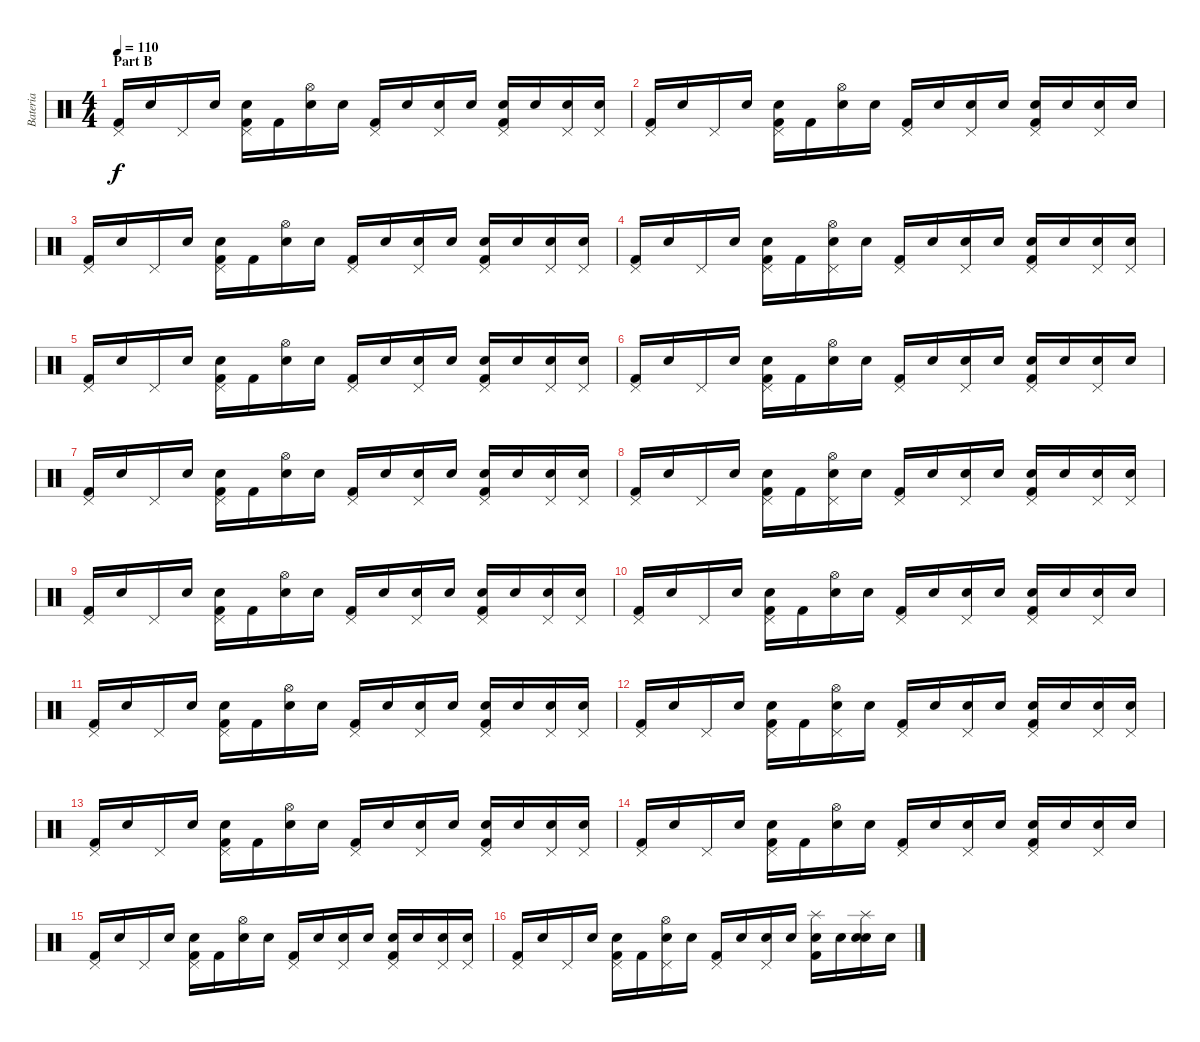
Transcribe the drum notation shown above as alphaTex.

\track ("Bateria" "Bateria") {instrument percussion}
\staff {score}
\articulation defaults
\ts (4 4)
\section ("" "Part B")
\tempo 110
\clef neutral
\ks c
("Kick (hit) 2" "Pedal Hi-Hat (hit)").16{dy f} "Snare (hit)".16 "Pedal Hi-Hat (hit)".16 "Snare (hit)".16 ("Kick (hit) 2" "Pedal Hi-Hat (hit)" "Electric Snare (hit)").16 "Kick (hit) 2".16 ("Snare (hit)" "Hi-Hat (open)").16 "Snare (hit)".16 ("Kick (hit) 2" "Pedal Hi-Hat (hit)").16 "Snare (hit)".16 ("Snare (hit)" "Pedal Hi-Hat (hit)").16 "Snare (hit)".16 ("Kick (hit) 2" "Pedal Hi-Hat (hit)" "Electric Snare (hit)").16 "Snare (hit)".16 ("Snare (hit)" "Pedal Hi-Hat (hit)").16 ("Snare (hit)" "Pedal Hi-Hat (hit)").16 |
("Kick (hit) 2" "Pedal Hi-Hat (hit)").16 "Snare (hit)".16 "Pedal Hi-Hat (hit)".16 "Snare (hit)".16 ("Kick (hit) 2" "Pedal Hi-Hat (hit)" "Electric Snare (hit)").16 "Kick (hit) 2".16 ("Snare (hit)" "Hi-Hat (open)").16 "Snare (hit)".16 ("Kick (hit) 2" "Pedal Hi-Hat (hit)").16 "Snare (hit)".16 ("Snare (hit)" "Pedal Hi-Hat (hit)").16 "Snare (hit)".16 ("Kick (hit) 2" "Pedal Hi-Hat (hit)" "Electric Snare (hit)").16 "Snare (hit)".16 ("Snare (hit)" "Pedal Hi-Hat (hit)").16 "Snare (hit)".16 |
("Kick (hit) 2" "Pedal Hi-Hat (hit)").16 "Snare (hit)".16 "Pedal Hi-Hat (hit)".16 "Snare (hit)".16 ("Kick (hit) 2" "Pedal Hi-Hat (hit)" "Electric Snare (hit)").16 "Kick (hit) 2".16 ("Snare (hit)" "Hi-Hat (open)").16 "Snare (hit)".16 ("Kick (hit) 2" "Pedal Hi-Hat (hit)").16 "Snare (hit)".16 ("Snare (hit)" "Pedal Hi-Hat (hit)").16 "Snare (hit)".16 ("Kick (hit) 2" "Pedal Hi-Hat (hit)" "Electric Snare (hit)").16 "Snare (hit)".16 ("Snare (hit)" "Pedal Hi-Hat (hit)").16 ("Snare (hit)" "Pedal Hi-Hat (hit)").16 |
("Kick (hit) 2" "Pedal Hi-Hat (hit)").16 "Snare (hit)".16 "Pedal Hi-Hat (hit)".16 "Snare (hit)".16 ("Kick (hit) 2" "Pedal Hi-Hat (hit)" "Electric Snare (hit)").16 "Kick (hit) 2".16 ("Snare (hit)" "Pedal Hi-Hat (hit)" "Hi-Hat (open)").16 "Snare (hit)".16 ("Kick (hit) 2" "Pedal Hi-Hat (hit)").16 "Snare (hit)".16 ("Snare (hit)" "Pedal Hi-Hat (hit)").16 "Snare (hit)".16 ("Kick (hit) 2" "Pedal Hi-Hat (hit)" "Electric Snare (hit)").16 "Snare (hit)".16 ("Snare (hit)" "Pedal Hi-Hat (hit)").16 ("Snare (hit)" "Pedal Hi-Hat (hit)").16 |
("Kick (hit) 2" "Pedal Hi-Hat (hit)").16 "Snare (hit)".16 "Pedal Hi-Hat (hit)".16 "Snare (hit)".16 ("Kick (hit) 2" "Pedal Hi-Hat (hit)" "Electric Snare (hit)").16 "Kick (hit) 2".16 ("Snare (hit)" "Hi-Hat (open)").16 "Snare (hit)".16 ("Kick (hit) 2" "Pedal Hi-Hat (hit)").16 "Snare (hit)".16 ("Snare (hit)" "Pedal Hi-Hat (hit)").16 "Snare (hit)".16 ("Kick (hit) 2" "Pedal Hi-Hat (hit)" "Electric Snare (hit)").16 "Snare (hit)".16 ("Snare (hit)" "Pedal Hi-Hat (hit)").16 ("Snare (hit)" "Pedal Hi-Hat (hit)").16 |
("Kick (hit) 2" "Pedal Hi-Hat (hit)").16 "Snare (hit)".16 "Pedal Hi-Hat (hit)".16 "Snare (hit)".16 ("Kick (hit) 2" "Pedal Hi-Hat (hit)" "Electric Snare (hit)").16 "Kick (hit) 2".16 ("Snare (hit)" "Hi-Hat (open)").16 "Snare (hit)".16 ("Kick (hit) 2" "Pedal Hi-Hat (hit)").16 "Snare (hit)".16 ("Snare (hit)" "Pedal Hi-Hat (hit)").16 "Snare (hit)".16 ("Kick (hit) 2" "Pedal Hi-Hat (hit)" "Electric Snare (hit)").16 "Snare (hit)".16 ("Snare (hit)" "Pedal Hi-Hat (hit)").16 "Snare (hit)".16 |
("Kick (hit) 2" "Pedal Hi-Hat (hit)").16 "Snare (hit)".16 "Pedal Hi-Hat (hit)".16 "Snare (hit)".16 ("Kick (hit) 2" "Pedal Hi-Hat (hit)" "Electric Snare (hit)").16 "Kick (hit) 2".16 ("Snare (hit)" "Hi-Hat (open)").16 "Snare (hit)".16 ("Kick (hit) 2" "Pedal Hi-Hat (hit)").16 "Snare (hit)".16 ("Snare (hit)" "Pedal Hi-Hat (hit)").16 "Snare (hit)".16 ("Kick (hit) 2" "Pedal Hi-Hat (hit)" "Electric Snare (hit)").16 "Snare (hit)".16 ("Snare (hit)" "Pedal Hi-Hat (hit)").16 ("Snare (hit)" "Pedal Hi-Hat (hit)").16 |
("Kick (hit) 2" "Pedal Hi-Hat (hit)").16 "Snare (hit)".16 "Pedal Hi-Hat (hit)".16 "Snare (hit)".16 ("Kick (hit) 2" "Pedal Hi-Hat (hit)" "Electric Snare (hit)").16 "Kick (hit) 2".16 ("Snare (hit)" "Pedal Hi-Hat (hit)" "Hi-Hat (open)").16 "Snare (hit)".16 ("Kick (hit) 2" "Pedal Hi-Hat (hit)").16 "Snare (hit)".16 ("Snare (hit)" "Pedal Hi-Hat (hit)").16 "Snare (hit)".16 ("Kick (hit) 2" "Pedal Hi-Hat (hit)" "Electric Snare (hit)").16 "Snare (hit)".16 ("Snare (hit)" "Pedal Hi-Hat (hit)").16 ("Snare (hit)" "Pedal Hi-Hat (hit)").16 |
("Kick (hit) 2" "Pedal Hi-Hat (hit)").16 "Snare (hit)".16 "Pedal Hi-Hat (hit)".16 "Snare (hit)".16 ("Kick (hit) 2" "Pedal Hi-Hat (hit)" "Electric Snare (hit)").16 "Kick (hit) 2".16 ("Snare (hit)" "Hi-Hat (open)").16 "Snare (hit)".16 ("Kick (hit) 2" "Pedal Hi-Hat (hit)").16 "Snare (hit)".16 ("Snare (hit)" "Pedal Hi-Hat (hit)").16 "Snare (hit)".16 ("Kick (hit) 2" "Pedal Hi-Hat (hit)" "Electric Snare (hit)").16 "Snare (hit)".16 ("Snare (hit)" "Pedal Hi-Hat (hit)").16 ("Snare (hit)" "Pedal Hi-Hat (hit)").16 |
("Kick (hit) 2" "Pedal Hi-Hat (hit)").16 "Snare (hit)".16 "Pedal Hi-Hat (hit)".16 "Snare (hit)".16 ("Kick (hit) 2" "Pedal Hi-Hat (hit)" "Electric Snare (hit)").16 "Kick (hit) 2".16 ("Snare (hit)" "Hi-Hat (open)").16 "Snare (hit)".16 ("Kick (hit) 2" "Pedal Hi-Hat (hit)").16 "Snare (hit)".16 ("Snare (hit)" "Pedal Hi-Hat (hit)").16 "Snare (hit)".16 ("Kick (hit) 2" "Pedal Hi-Hat (hit)" "Electric Snare (hit)").16 "Snare (hit)".16 ("Snare (hit)" "Pedal Hi-Hat (hit)").16 "Snare (hit)".16 |
("Kick (hit) 2" "Pedal Hi-Hat (hit)").16 "Snare (hit)".16 "Pedal Hi-Hat (hit)".16 "Snare (hit)".16 ("Kick (hit) 2" "Pedal Hi-Hat (hit)" "Electric Snare (hit)").16 "Kick (hit) 2".16 ("Snare (hit)" "Hi-Hat (open)").16 "Snare (hit)".16 ("Kick (hit) 2" "Pedal Hi-Hat (hit)").16 "Snare (hit)".16 ("Snare (hit)" "Pedal Hi-Hat (hit)").16 "Snare (hit)".16 ("Kick (hit) 2" "Pedal Hi-Hat (hit)" "Electric Snare (hit)").16 "Snare (hit)".16 ("Snare (hit)" "Pedal Hi-Hat (hit)").16 ("Snare (hit)" "Pedal Hi-Hat (hit)").16 |
("Kick (hit) 2" "Pedal Hi-Hat (hit)").16 "Snare (hit)".16 "Pedal Hi-Hat (hit)".16 "Snare (hit)".16 ("Kick (hit) 2" "Pedal Hi-Hat (hit)" "Electric Snare (hit)").16 "Kick (hit) 2".16 ("Snare (hit)" "Pedal Hi-Hat (hit)" "Hi-Hat (open)").16 "Snare (hit)".16 ("Kick (hit) 2" "Pedal Hi-Hat (hit)").16 "Snare (hit)".16 ("Snare (hit)" "Pedal Hi-Hat (hit)").16 "Snare (hit)".16 ("Kick (hit) 2" "Pedal Hi-Hat (hit)" "Electric Snare (hit)").16 "Snare (hit)".16 ("Snare (hit)" "Pedal Hi-Hat (hit)").16 ("Snare (hit)" "Pedal Hi-Hat (hit)").16 |
("Kick (hit) 2" "Pedal Hi-Hat (hit)").16 "Snare (hit)".16 "Pedal Hi-Hat (hit)".16 "Snare (hit)".16 ("Kick (hit) 2" "Pedal Hi-Hat (hit)" "Electric Snare (hit)").16 "Kick (hit) 2".16 ("Snare (hit)" "Hi-Hat (open)").16 "Snare (hit)".16 ("Kick (hit) 2" "Pedal Hi-Hat (hit)").16 "Snare (hit)".16 ("Snare (hit)" "Pedal Hi-Hat (hit)").16 "Snare (hit)".16 ("Kick (hit) 2" "Pedal Hi-Hat (hit)" "Electric Snare (hit)").16 "Snare (hit)".16 ("Snare (hit)" "Pedal Hi-Hat (hit)").16 ("Snare (hit)" "Pedal Hi-Hat (hit)").16 |
("Kick (hit) 2" "Pedal Hi-Hat (hit)").16 "Snare (hit)".16 "Pedal Hi-Hat (hit)".16 "Snare (hit)".16 ("Kick (hit) 2" "Pedal Hi-Hat (hit)" "Electric Snare (hit)").16 "Kick (hit) 2".16 ("Snare (hit)" "Hi-Hat (open)").16 "Snare (hit)".16 ("Kick (hit) 2" "Pedal Hi-Hat (hit)").16 "Snare (hit)".16 ("Snare (hit)" "Pedal Hi-Hat (hit)").16 "Snare (hit)".16 ("Kick (hit) 2" "Pedal Hi-Hat (hit)" "Electric Snare (hit)").16 "Snare (hit)".16 ("Snare (hit)" "Pedal Hi-Hat (hit)").16 "Snare (hit)".16 |
("Kick (hit) 2" "Pedal Hi-Hat (hit)").16 "Snare (hit)".16 "Pedal Hi-Hat (hit)".16 "Snare (hit)".16 ("Kick (hit) 2" "Pedal Hi-Hat (hit)" "Electric Snare (hit)").16 "Kick (hit) 2".16 ("Snare (hit)" "Hi-Hat (open)").16 "Snare (hit)".16 ("Kick (hit) 2" "Pedal Hi-Hat (hit)").16 "Snare (hit)".16 ("Snare (hit)" "Pedal Hi-Hat (hit)").16 "Snare (hit)".16 ("Kick (hit) 2" "Pedal Hi-Hat (hit)" "Electric Snare (hit)").16 "Snare (hit)".16 ("Snare (hit)" "Pedal Hi-Hat (hit)").16 ("Snare (hit)" "Pedal Hi-Hat (hit)").16 |
("Kick (hit) 2" "Pedal Hi-Hat (hit)").16 "Snare (hit)".16 "Pedal Hi-Hat (hit)".16 "Snare (hit)".16 ("Kick (hit) 2" "Pedal Hi-Hat (hit)" "Electric Snare (hit)").16 "Kick (hit) 2".16 ("Snare (hit)" "Pedal Hi-Hat (hit)" "Hi-Hat (open)").16 "Snare (hit)".16 ("Kick (hit) 2" "Pedal Hi-Hat (hit)").16 "Snare (hit)".16 ("Snare (hit)" "Pedal Hi-Hat (hit)").16 "Snare (hit)".16 ("Kick (hit) 2" "Splash (hit)" "Electric Snare (hit)").16 "Snare (hit)".16 ("Snare (hit)" "Splash (hit)" "Electric Snare (hit)").16 "Snare (hit)".16
